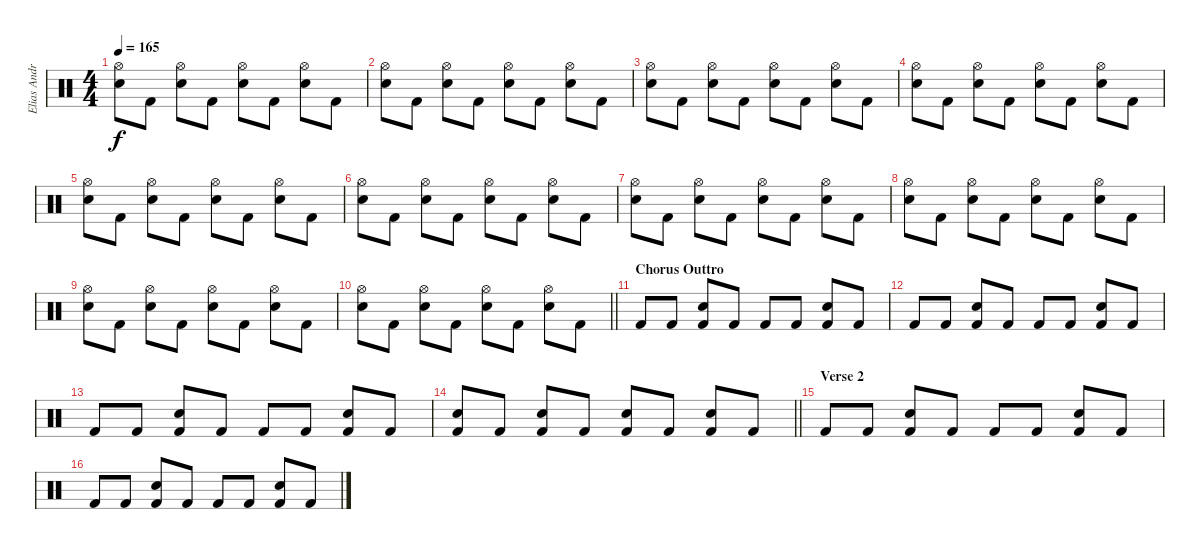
\track ("Elias Andra-Drums" "Elias Andr") {instrument percussion}
\staff {score}
\articulation defaults
\ts (4 4)
\tempo 165
\clef neutral
\ks c
("Electric Snare (hit)" "Hi-Hat (open)").8{dy f} "Kick (hit) 2".8 ("Electric Snare (hit)" "Hi-Hat (open)").8 "Kick (hit) 2".8 ("Electric Snare (hit)" "Hi-Hat (open)").8 "Kick (hit) 2".8 ("Electric Snare (hit)" "Hi-Hat (open)").8 "Kick (hit) 2".8 |
("Electric Snare (hit)" "Hi-Hat (open)").8 "Kick (hit) 2".8 ("Electric Snare (hit)" "Hi-Hat (open)").8 "Kick (hit) 2".8 ("Electric Snare (hit)" "Hi-Hat (open)").8 "Kick (hit) 2".8 ("Electric Snare (hit)" "Hi-Hat (open)").8 "Kick (hit) 2".8 |
("Electric Snare (hit)" "Hi-Hat (open)").8 "Kick (hit) 2".8 ("Electric Snare (hit)" "Hi-Hat (open)").8 "Kick (hit) 2".8 ("Electric Snare (hit)" "Hi-Hat (open)").8 "Kick (hit) 2".8 ("Electric Snare (hit)" "Hi-Hat (open)").8 "Kick (hit) 2".8 |
("Electric Snare (hit)" "Hi-Hat (open)").8 "Kick (hit) 2".8 ("Electric Snare (hit)" "Hi-Hat (open)").8 "Kick (hit) 2".8 ("Electric Snare (hit)" "Hi-Hat (open)").8 "Kick (hit) 2".8 ("Electric Snare (hit)" "Hi-Hat (open)").8 "Kick (hit) 2".8 |
("Electric Snare (hit)" "Hi-Hat (open)").8 "Kick (hit) 2".8 ("Electric Snare (hit)" "Hi-Hat (open)").8 "Kick (hit) 2".8 ("Electric Snare (hit)" "Hi-Hat (open)").8 "Kick (hit) 2".8 ("Electric Snare (hit)" "Hi-Hat (open)").8 "Kick (hit) 2".8 |
("Electric Snare (hit)" "Hi-Hat (open)").8 "Kick (hit) 2".8 ("Electric Snare (hit)" "Hi-Hat (open)").8 "Kick (hit) 2".8 ("Electric Snare (hit)" "Hi-Hat (open)").8 "Kick (hit) 2".8 ("Electric Snare (hit)" "Hi-Hat (open)").8 "Kick (hit) 2".8 |
("Electric Snare (hit)" "Hi-Hat (open)").8 "Kick (hit) 2".8 ("Electric Snare (hit)" "Hi-Hat (open)").8 "Kick (hit) 2".8 ("Electric Snare (hit)" "Hi-Hat (open)").8 "Kick (hit) 2".8 ("Electric Snare (hit)" "Hi-Hat (open)").8 "Kick (hit) 2".8 |
("Electric Snare (hit)" "Hi-Hat (open)").8 "Kick (hit) 2".8 ("Electric Snare (hit)" "Hi-Hat (open)").8 "Kick (hit) 2".8 ("Electric Snare (hit)" "Hi-Hat (open)").8 "Kick (hit) 2".8 ("Electric Snare (hit)" "Hi-Hat (open)").8 "Kick (hit) 2".8 |
("Electric Snare (hit)" "Hi-Hat (open)").8 "Kick (hit) 2".8 ("Electric Snare (hit)" "Hi-Hat (open)").8 "Kick (hit) 2".8 ("Electric Snare (hit)" "Hi-Hat (open)").8 "Kick (hit) 2".8 ("Electric Snare (hit)" "Hi-Hat (open)").8 "Kick (hit) 2".8 |
\barLineRight lightlight
("Electric Snare (hit)" "Hi-Hat (open)").8 "Kick (hit) 2".8 ("Electric Snare (hit)" "Hi-Hat (open)").8 "Kick (hit) 2".8 ("Electric Snare (hit)" "Hi-Hat (open)").8 "Kick (hit) 2".8 ("Electric Snare (hit)" "Hi-Hat (open)").8 "Kick (hit) 2".8 |
\section ("" "Chorus Outtro")
"Kick (hit) 2".8 "Kick (hit) 2".8 ("Kick (hit) 2" "Electric Snare (hit)").8 "Kick (hit) 2".8 "Kick (hit) 2".8 "Kick (hit) 2".8 ("Kick (hit) 2" "Electric Snare (hit)").8 "Kick (hit) 2".8 |
"Kick (hit) 2".8 "Kick (hit) 2".8 ("Kick (hit) 2" "Electric Snare (hit)").8 "Kick (hit) 2".8 "Kick (hit) 2".8 "Kick (hit) 2".8 ("Kick (hit) 2" "Electric Snare (hit)").8 "Kick (hit) 2".8 |
"Kick (hit) 2".8 "Kick (hit) 2".8 ("Kick (hit) 2" "Electric Snare (hit)").8 "Kick (hit) 2".8 "Kick (hit) 2".8 "Kick (hit) 2".8 ("Kick (hit) 2" "Electric Snare (hit)").8 "Kick (hit) 2".8 |
\barLineRight lightlight
("Kick (hit) 2" "Electric Snare (hit)").8 "Kick (hit) 2".8 ("Kick (hit) 2" "Electric Snare (hit)").8 "Kick (hit) 2".8 ("Kick (hit) 2" "Electric Snare (hit)").8 "Kick (hit) 2".8 ("Kick (hit) 2" "Electric Snare (hit)").8 "Kick (hit) 2".8 |
\section ("" "Verse 2")
"Kick (hit) 2".8 "Kick (hit) 2".8 ("Kick (hit) 2" "Electric Snare (hit)").8 "Kick (hit) 2".8 "Kick (hit) 2".8 "Kick (hit) 2".8 ("Kick (hit) 2" "Electric Snare (hit)").8 "Kick (hit) 2".8 |
"Kick (hit) 2".8 "Kick (hit) 2".8 ("Kick (hit) 2" "Electric Snare (hit)").8 "Kick (hit) 2".8 "Kick (hit) 2".8 "Kick (hit) 2".8 ("Kick (hit) 2" "Electric Snare (hit)").8 "Kick (hit) 2".8
